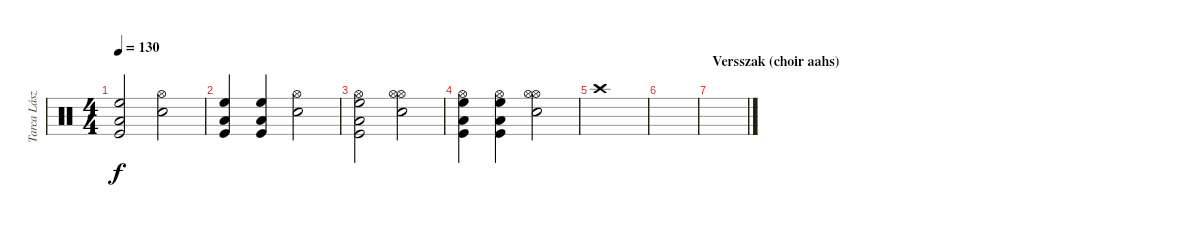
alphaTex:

\track ("Tarca László" "Tarca Lász") {instrument percussion}
\staff {score}
\articulation defaults
\ts (4 4)
\tempo 130
\clef neutral
\ks c
("High Floor Tom (hit)" "Low Tom (hit)" "Kick (hit)").2{dy f} ("Snare (hit) 2" "Hi-Hat (open)").2 |
("High Floor Tom (hit)" "Low Tom (hit)" "Kick (hit)").4 ("High Floor Tom (hit)" "Low Tom (hit)" "Kick (hit)").4 ("Snare (hit) 2" "Hi-Hat (open)").2 |
("Hi-Hat (open)" "High Floor Tom (hit)" "Low Tom (hit)" "Kick (hit)").2 ("Hi-Hat (open)" "Snare (hit) 2" "Hi-Hat (open)").2 |
("Hi-Hat (open)" "High Floor Tom (hit)" "Low Tom (hit)" "Kick (hit)").4 ("Hi-Hat (open)" "High Floor Tom (hit)" "Low Tom (hit)" "Kick (hit)").4 ("Hi-Hat (open)" "Snare (hit) 2" "Hi-Hat (open)").2 |
"Crash high (hit)".1 |
|
\section ("" "Versszak (choir aahs)")
